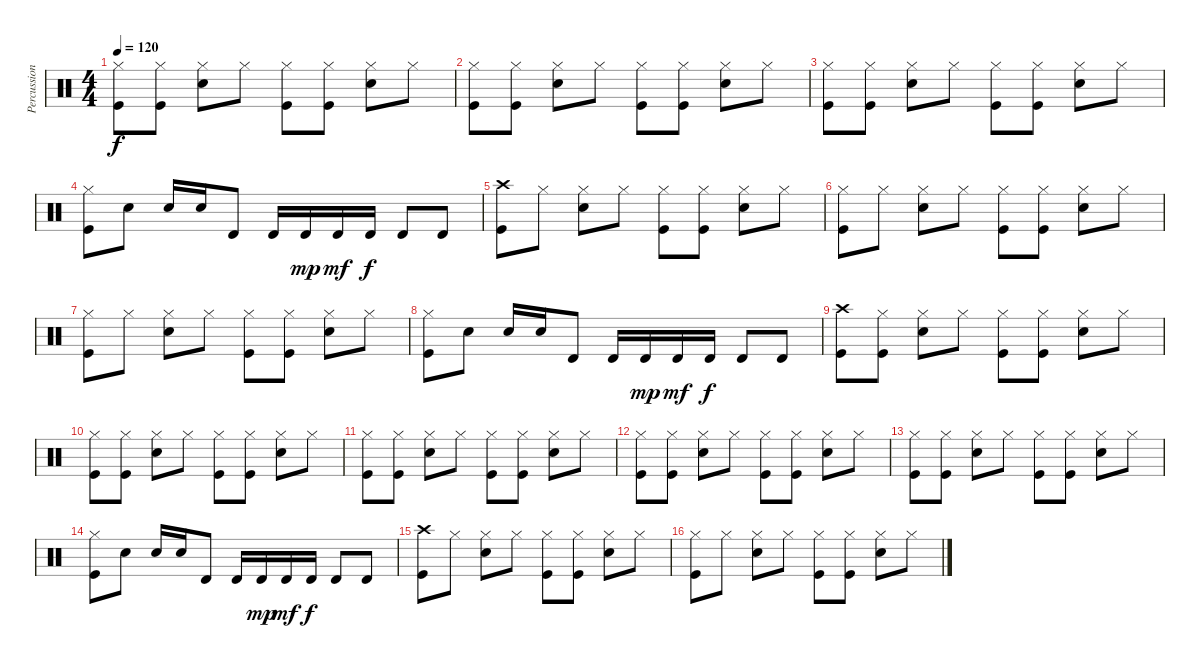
\track ("Percussion" "Percussion") {instrument percussion}
\staff {score}
\articulation defaults
\ts (4 4)
\tempo 120
\clef neutral
\ks c
("Hi-Hat (closed)" "Kick (hit)").8{dy f} ("Hi-Hat (closed)" "Kick (hit)").8 ("Hi-Hat (closed)" "Snare (hit) 2").8 "Hi-Hat (closed)".8 ("Hi-Hat (closed)" "Kick (hit)").8 ("Hi-Hat (closed)" "Kick (hit)").8 ("Hi-Hat (closed)" "Snare (hit) 2").8 "Hi-Hat (closed)".8 |
("Hi-Hat (closed)" "Kick (hit)").8 ("Hi-Hat (closed)" "Kick (hit)").8 ("Hi-Hat (closed)" "Snare (hit) 2").8 "Hi-Hat (closed)".8 ("Hi-Hat (closed)" "Kick (hit)").8 ("Hi-Hat (closed)" "Kick (hit)").8 ("Hi-Hat (closed)" "Snare (hit) 2").8 "Hi-Hat (closed)".8 |
("Hi-Hat (closed)" "Kick (hit)").8 ("Hi-Hat (closed)" "Kick (hit)").8 ("Hi-Hat (closed)" "Snare (hit) 2").8 "Hi-Hat (closed)".8 ("Hi-Hat (closed)" "Kick (hit)").8 ("Hi-Hat (closed)" "Kick (hit)").8 ("Hi-Hat (closed)" "Snare (hit) 2").8 "Hi-Hat (closed)".8 |
("Hi-Hat (closed)" "Kick (hit)").8 "Snare (hit) 2".8 "Snare (hit) 2".16 "Snare (hit) 2".16 "Timbale high (hit)".8 "Timbale high (hit)".16 "Timbale high (hit)".16{dy mp} "Timbale high (hit)".16{dy mf} "Timbale high (hit)".16{dy f} "Timbale high (hit)".8 "Timbale high (hit)".8 |
("Crash high (hit)" "Kick (hit)").8 "Hi-Hat (closed)".8 ("Hi-Hat (closed)" "Snare (hit) 2").8 "Hi-Hat (closed)".8 ("Hi-Hat (closed)" "Kick (hit)").8 ("Hi-Hat (closed)" "Kick (hit)").8 ("Hi-Hat (closed)" "Snare (hit) 2").8 "Hi-Hat (closed)".8 |
("Hi-Hat (closed)" "Kick (hit)").8 "Hi-Hat (closed)".8 ("Hi-Hat (closed)" "Snare (hit) 2").8 "Hi-Hat (closed)".8 ("Hi-Hat (closed)" "Kick (hit)").8 ("Hi-Hat (closed)" "Kick (hit)").8 ("Hi-Hat (closed)" "Snare (hit) 2").8 "Hi-Hat (closed)".8 |
("Hi-Hat (closed)" "Kick (hit)").8 "Hi-Hat (closed)".8 ("Hi-Hat (closed)" "Snare (hit) 2").8 "Hi-Hat (closed)".8 ("Hi-Hat (closed)" "Kick (hit)").8 ("Hi-Hat (closed)" "Kick (hit)").8 ("Hi-Hat (closed)" "Snare (hit) 2").8 "Hi-Hat (closed)".8 |
("Hi-Hat (closed)" "Kick (hit)").8 "Snare (hit) 2".8 "Snare (hit) 2".16 "Snare (hit) 2".16 "Timbale high (hit)".8 "Timbale high (hit)".16 "Timbale high (hit)".16{dy mp} "Timbale high (hit)".16{dy mf} "Timbale high (hit)".16{dy f} "Timbale high (hit)".8 "Timbale high (hit)".8 |
("Crash high (hit)" "Kick (hit)").8 ("Hi-Hat (closed)" "Kick (hit)").8 ("Hi-Hat (closed)" "Snare (hit) 2").8 "Hi-Hat (closed)".8 ("Hi-Hat (closed)" "Kick (hit)").8 ("Hi-Hat (closed)" "Kick (hit)").8 ("Hi-Hat (closed)" "Snare (hit) 2").8 "Hi-Hat (closed)".8 |
("Hi-Hat (closed)" "Kick (hit)").8 ("Hi-Hat (closed)" "Kick (hit)").8 ("Hi-Hat (closed)" "Snare (hit) 2").8 "Hi-Hat (closed)".8 ("Hi-Hat (closed)" "Kick (hit)").8 ("Hi-Hat (closed)" "Kick (hit)").8 ("Hi-Hat (closed)" "Snare (hit) 2").8 "Hi-Hat (closed)".8 |
("Hi-Hat (closed)" "Kick (hit)").8 ("Hi-Hat (closed)" "Kick (hit)").8 ("Hi-Hat (closed)" "Snare (hit) 2").8 "Hi-Hat (closed)".8 ("Hi-Hat (closed)" "Kick (hit)").8 ("Hi-Hat (closed)" "Kick (hit)").8 ("Hi-Hat (closed)" "Snare (hit) 2").8 "Hi-Hat (closed)".8 |
("Hi-Hat (closed)" "Kick (hit)").8 ("Hi-Hat (closed)" "Kick (hit)").8 ("Hi-Hat (closed)" "Snare (hit) 2").8 "Hi-Hat (closed)".8 ("Hi-Hat (closed)" "Kick (hit)").8 ("Hi-Hat (closed)" "Kick (hit)").8 ("Hi-Hat (closed)" "Snare (hit) 2").8 "Hi-Hat (closed)".8 |
("Hi-Hat (closed)" "Kick (hit)").8 ("Hi-Hat (closed)" "Kick (hit)").8 ("Hi-Hat (closed)" "Snare (hit) 2").8 "Hi-Hat (closed)".8 ("Hi-Hat (closed)" "Kick (hit)").8 ("Hi-Hat (closed)" "Kick (hit)").8 ("Hi-Hat (closed)" "Snare (hit) 2").8 "Hi-Hat (closed)".8 |
("Hi-Hat (closed)" "Kick (hit)").8 "Snare (hit) 2".8 "Snare (hit) 2".16 "Snare (hit) 2".16 "Timbale high (hit)".8 "Timbale high (hit)".16 "Timbale high (hit)".16{dy mp} "Timbale high (hit)".16{dy mf} "Timbale high (hit)".16{dy f} "Timbale high (hit)".8 "Timbale high (hit)".8 |
("Crash high (hit)" "Kick (hit)").8 "Hi-Hat (closed)".8 ("Hi-Hat (closed)" "Snare (hit) 2").8 "Hi-Hat (closed)".8 ("Hi-Hat (closed)" "Kick (hit)").8 ("Hi-Hat (closed)" "Kick (hit)").8 ("Hi-Hat (closed)" "Snare (hit) 2").8 "Hi-Hat (closed)".8 |
("Hi-Hat (closed)" "Kick (hit)").8 "Hi-Hat (closed)".8 ("Hi-Hat (closed)" "Snare (hit) 2").8 "Hi-Hat (closed)".8 ("Hi-Hat (closed)" "Kick (hit)").8 ("Hi-Hat (closed)" "Kick (hit)").8 ("Hi-Hat (closed)" "Snare (hit) 2").8 "Hi-Hat (closed)".8
